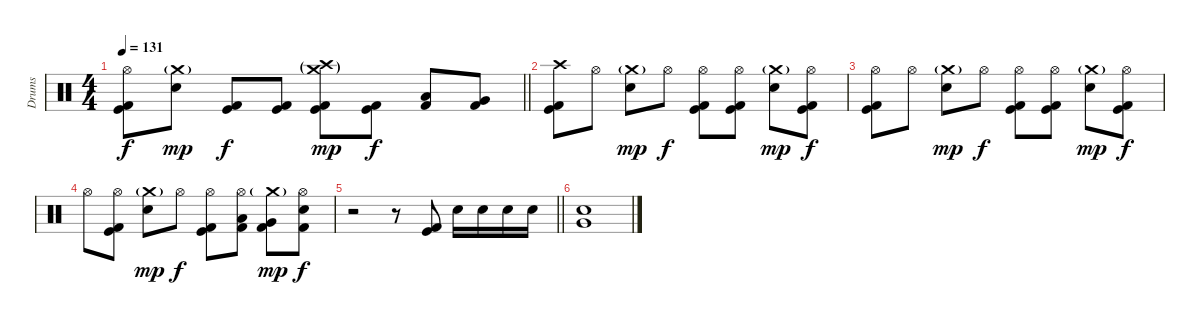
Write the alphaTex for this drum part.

\track ("Drums" "Drums") {instrument percussion}
\staff {score}
\articulation defaults
\ts (4 4)
\tempo 131
\clef neutral
\barLineRight lightlight
\ks c
("Hi-Hat (open)" "Kick (hit)" "Kick (hit) 2").8{dy f} ("Crash medium (hit)"{g} "Electric Snare (hit)").8{dy mp} ("Kick (hit)" "Kick (hit) 2").8{dy f} ("Kick (hit)" "Kick (hit) 2").8 ("Crash medium (hit)"{g} "Crash high (hit)"{g} "Kick (hit)" "Kick (hit) 2").8{dy mp} ("Kick (hit)" "Kick (hit) 2").8{dy f} ("Kick (hit) 2" "Low Tom (hit)").8 ("Kick (hit) 2" "Very Low Tom (hit)").8 |
\section ("" "")
("Crash high (hit)" "Kick (hit)" "Kick (hit) 2").8 "Hi-Hat (open)".8 ("Crash medium (hit)"{g} "Electric Snare (hit)").8{dy mp} "Hi-Hat (open)".8{dy f} ("Hi-Hat (open)" "Kick (hit)" "Kick (hit) 2").8 ("Hi-Hat (open)" "Kick (hit)" "Kick (hit) 2").8 ("Crash medium (hit)"{g} "Electric Snare (hit)").8{dy mp} ("Hi-Hat (open)" "Kick (hit)" "Kick (hit) 2").8{dy f} |
("Hi-Hat (open)" "Kick (hit)" "Kick (hit) 2").8 "Hi-Hat (open)".8 ("Crash medium (hit)"{g} "Electric Snare (hit)").8{dy mp} "Hi-Hat (open)".8{dy f} ("Hi-Hat (open)" "Kick (hit)" "Kick (hit) 2").8 ("Hi-Hat (open)" "Kick (hit)" "Kick (hit) 2").8 ("Crash medium (hit)"{g} "Electric Snare (hit)").8{dy mp} ("Hi-Hat (open)" "Kick (hit)" "Kick (hit) 2").8{dy f} |
"Hi-Hat (open)".8 ("Hi-Hat (open)" "Kick (hit)" "Kick (hit) 2").8 ("Crash medium (hit)"{g} "Electric Snare (hit)").8{dy mp} "Hi-Hat (open)".8{dy f} ("Hi-Hat (open)" "Kick (hit)" "Kick (hit) 2").8 ("Hi-Hat (open)" "Kick (hit) 2" "Low Tom (hit)").8 ("Crash medium (hit)"{g} "Kick (hit) 2" "Very Low Tom (hit)").8{dy mp} ("Hi-Hat (open)" "Electric Snare (hit)" "Kick (hit) 2").8{dy f} |
\barLineRight lightlight
r.2 r.8 ("Kick (hit)" "Kick (hit) 2").8 "Electric Snare (hit)".16 "Electric Snare (hit)".16 "Electric Snare (hit)".16 "Electric Snare (hit)".16 |
("Electric Snare (hit)" "Very Low Tom (hit)").1
